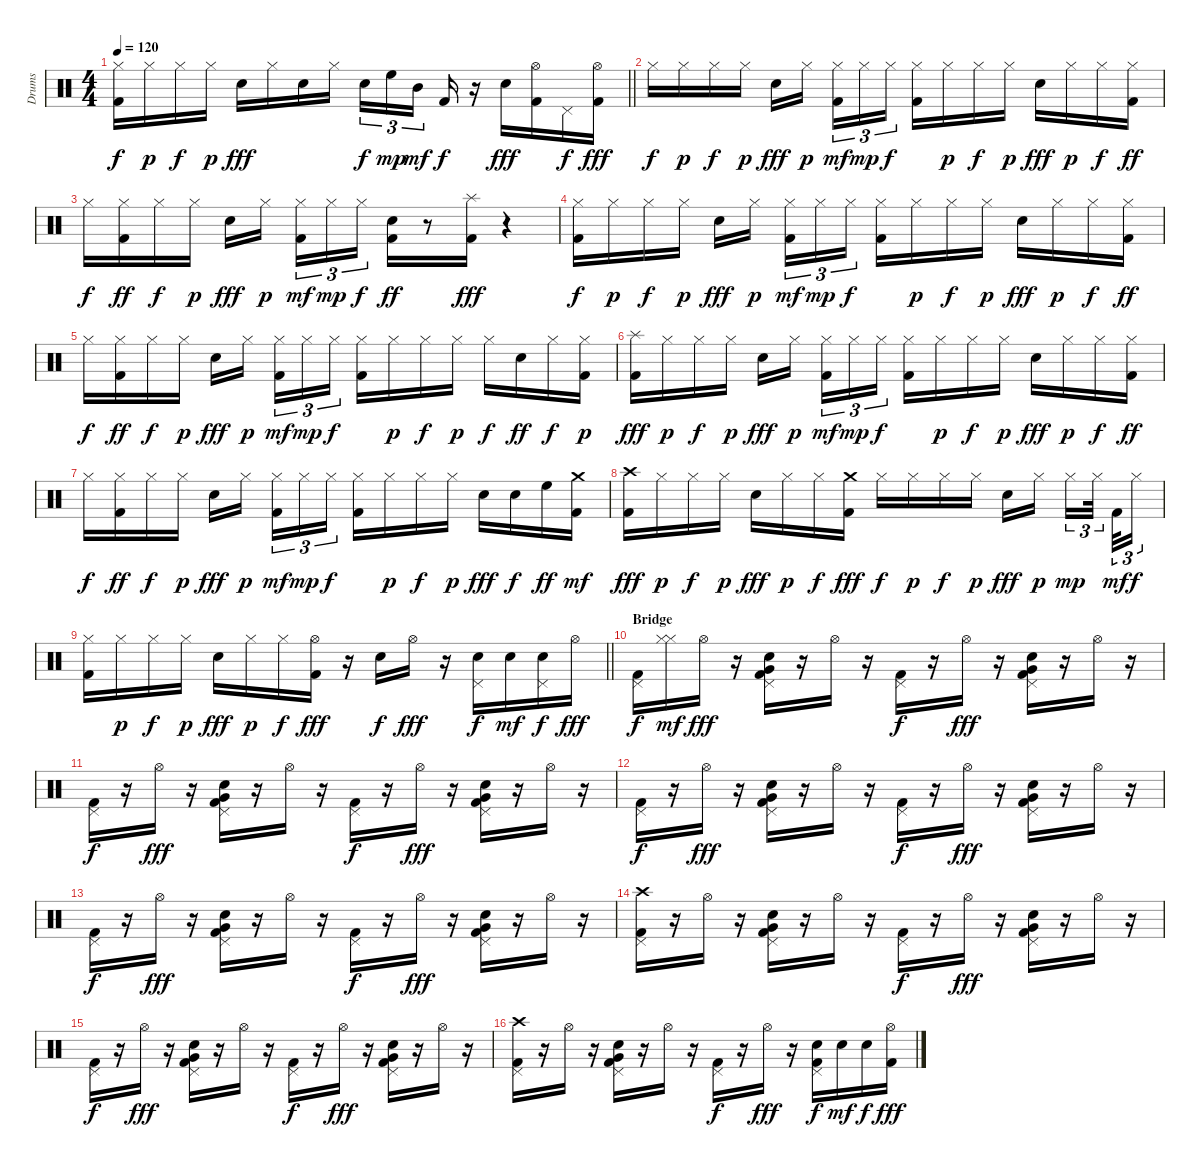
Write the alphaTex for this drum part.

\track ("Drums" "Drums") {instrument percussion}
\staff {score}
\articulation defaults
\ts (4 4)
\tempo 120
\clef neutral
\barLineRight lightlight
\ks c
("Hi-Hat (closed)" "Kick (hit) 2").16{dy f} "Hi-Hat (closed)".16{dy p} "Hi-Hat (closed)".16{dy f} "Hi-Hat (closed)".16{dy p} "Snare (hit) 2".16{dy fff} "Hi-Hat (closed)".16 "Snare (hit) 2".16 "Hi-Hat (closed)".16 "Snare (hit) 2".16{tu (3 2) dy f} "High Floor Tom (hit)".16{tu (3 2) dy mp} "Mid Tom (hit)".16{tu (3 2) dy mf beam splitsecondary} "Kick (hit) 2".16{dy f} r.16 "Snare (hit) 2".16{dy fff} ("Hi-Hat (open)" "Kick (hit) 2").16 "Pedal Hi-Hat (hit)".16{dy f} ("Hi-Hat (open)" "Kick (hit) 2").16{dy fff} |
"Hi-Hat (closed)".16{dy f} "Hi-Hat (closed)".16{dy p} "Hi-Hat (closed)".16{dy f} "Hi-Hat (closed)".16{dy p} "Snare (hit) 2".16{dy fff} "Hi-Hat (closed)".16{dy p beam splitsecondary} ("Hi-Hat (closed)" "Kick (hit) 2").16{tu (3 2) dy mf} "Hi-Hat (closed)".16{tu (3 2) dy mp} "Hi-Hat (closed)".16{tu (3 2) dy f} ("Hi-Hat (closed)" "Kick (hit) 2").16 "Hi-Hat (closed)".16{dy p} "Hi-Hat (closed)".16{dy f} "Hi-Hat (closed)".16{dy p} "Snare (hit) 2".16{dy fff} "Hi-Hat (closed)".16{dy p} "Hi-Hat (closed)".16{dy f} ("Hi-Hat (closed)" "Kick (hit) 2").16{dy ff} |
"Hi-Hat (closed)".16{dy f} ("Hi-Hat (closed)" "Kick (hit) 2").16{dy ff} "Hi-Hat (closed)".16{dy f} "Hi-Hat (closed)".16{dy p} "Snare (hit) 2".16{dy fff} "Hi-Hat (closed)".16{dy p beam splitsecondary} ("Hi-Hat (closed)" "Kick (hit) 2").16{tu (3 2) dy mf} "Hi-Hat (closed)".16{tu (3 2) dy mp} "Hi-Hat (closed)".16{tu (3 2) dy f} ("Snare (hit) 2" "Kick (hit) 2").16{dy ff} r.8 ("Kick (hit) 2" "Splash (hit)").16{dy fff} r.4 |
("Hi-Hat (closed)" "Kick (hit) 2").16{dy f} "Hi-Hat (closed)".16{dy p} "Hi-Hat (closed)".16{dy f} "Hi-Hat (closed)".16{dy p} "Snare (hit) 2".16{dy fff} "Hi-Hat (closed)".16{dy p beam splitsecondary} ("Hi-Hat (closed)" "Kick (hit) 2").16{tu (3 2) dy mf} "Hi-Hat (closed)".16{tu (3 2) dy mp} "Hi-Hat (closed)".16{tu (3 2) dy f} ("Hi-Hat (closed)" "Kick (hit) 2").16 "Hi-Hat (closed)".16{dy p} "Hi-Hat (closed)".16{dy f} "Hi-Hat (closed)".16{dy p} "Snare (hit) 2".16{dy fff} "Hi-Hat (closed)".16{dy p} "Hi-Hat (closed)".16{dy f} ("Hi-Hat (closed)" "Kick (hit) 2").16{dy ff} |
"Hi-Hat (closed)".16{dy f} ("Hi-Hat (closed)" "Kick (hit) 2").16{dy ff} "Hi-Hat (closed)".16{dy f} "Hi-Hat (closed)".16{dy p} "Snare (hit) 2".16{dy fff} "Hi-Hat (closed)".16{dy p beam splitsecondary} ("Hi-Hat (closed)" "Kick (hit) 2").16{tu (3 2) dy mf} "Hi-Hat (closed)".16{tu (3 2) dy mp} "Hi-Hat (closed)".16{tu (3 2) dy f} ("Hi-Hat (closed)" "Kick (hit) 2").16 "Hi-Hat (closed)".16{dy p} "Hi-Hat (closed)".16{dy f} "Hi-Hat (closed)".16{dy p} "Hi-Hat (closed)".16{dy f} "Snare (hit) 2".16{dy ff} "Hi-Hat (closed)".16{dy f} ("Kick (hit) 2" "Hi-Hat (closed)").16{dy p} |
("Kick (hit) 2" "Splash (hit)").16{dy fff} "Hi-Hat (closed)".16{dy p} "Hi-Hat (closed)".16{dy f} "Hi-Hat (closed)".16{dy p} "Snare (hit) 2".16{dy fff} "Hi-Hat (closed)".16{dy p beam splitsecondary} ("Hi-Hat (closed)" "Kick (hit) 2").16{tu (3 2) dy mf} "Hi-Hat (closed)".16{tu (3 2) dy mp} "Hi-Hat (closed)".16{tu (3 2) dy f} ("Hi-Hat (closed)" "Kick (hit) 2").16 "Hi-Hat (closed)".16{dy p} "Hi-Hat (closed)".16{dy f} "Hi-Hat (closed)".16{dy p} "Snare (hit) 2".16{dy fff} "Hi-Hat (closed)".16{dy p} "Hi-Hat (closed)".16{dy f} ("Hi-Hat (closed)" "Kick (hit) 2").16{dy ff} |
"Hi-Hat (closed)".16{dy f} ("Hi-Hat (closed)" "Kick (hit) 2").16{dy ff} "Hi-Hat (closed)".16{dy f} "Hi-Hat (closed)".16{dy p} "Snare (hit) 2".16{dy fff} "Hi-Hat (closed)".16{dy p beam splitsecondary} ("Hi-Hat (closed)" "Kick (hit) 2").16{tu (3 2) dy mf} "Hi-Hat (closed)".16{tu (3 2) dy mp} "Hi-Hat (closed)".16{tu (3 2) dy f} ("Hi-Hat (closed)" "Kick (hit) 2").16 "Hi-Hat (closed)".16{dy p} "Hi-Hat (closed)".16{dy f} "Hi-Hat (closed)".16{dy p} "Snare (hit) 2".16{dy fff} "Snare (hit) 2".16{dy f} "High Floor Tom (hit)".16{dy ff} ("Kick (hit) 2" "Crash medium (hit)").16{dy mf} |
("Kick (hit) 2" "Crash high (hit)").16{dy fff} "Hi-Hat (closed)".16{dy p} "Hi-Hat (closed)".16{dy f} "Hi-Hat (closed)".16{dy p} "Snare (hit) 2".16{dy fff} "Hi-Hat (closed)".16{dy p} "Hi-Hat (closed)".16{dy f} ("Kick (hit) 2" "Crash medium (hit)").16{dy fff} "Hi-Hat (closed)".16{dy f} "Hi-Hat (closed)".16{dy p} "Hi-Hat (closed)".16{dy f} "Hi-Hat (closed)".16{dy p} "Snare (hit) 2".16{dy fff} "Hi-Hat (closed)".16{dy p beam splitsecondary} "Hi-Hat (closed)".16{tu (3 2) dy mp} "Hi-Hat (closed)".32{tu (3 2) beam splitsecondary} "Kick (hit) 2".32{tu (3 2) dy mf} "Hi-Hat (closed)".16{tu (3 2) dy f} |
\barLineRight lightlight
("Kick (hit) 2" "Hi-Hat (closed)").16 "Hi-Hat (closed)".16{dy p} "Hi-Hat (closed)".16{dy f} "Hi-Hat (closed)".16{dy p} "Snare (hit) 2".16{dy fff} "Hi-Hat (closed)".16{dy p} "Hi-Hat (closed)".16{dy f} ("Kick (hit) 2" "Hi-Hat (open)").16{dy fff} r.16 "Snare (hit) 2".16{dy f} "Hi-Hat (open)".16{dy fff} r.16 ("Snare (hit) 2" "Pedal Hi-Hat (hit)").16{dy f} "Snare (hit) 2".16{dy mf} ("Snare (hit) 2" "Pedal Hi-Hat (hit)").16{dy f} "Hi-Hat (open)".16{dy fff} |
\section ("" "Bridge")
("Kick (hit) 2" "Pedal Hi-Hat (hit)").16{dy f} ("Hi-Hat (closed)" "Hi-Hat (closed)").16{dy mf} "Hi-Hat (open)".16{dy fff} r.16 ("Kick (hit) 2" "Pedal Hi-Hat (hit)" "Snare (hit) 2" "Very Low Tom (hit)").16 r.16 "Hi-Hat (open)".16 r.16 ("Kick (hit) 2" "Pedal Hi-Hat (hit)").16{dy f} r.16 "Hi-Hat (open)".16{dy fff} r.16 ("Kick (hit) 2" "Pedal Hi-Hat (hit)" "Snare (hit) 2" "Very Low Tom (hit)").16 r.16 "Hi-Hat (open)".16 r.16 |
("Kick (hit) 2" "Pedal Hi-Hat (hit)").16{dy f} r.16 "Hi-Hat (open)".16{dy fff} r.16 ("Kick (hit) 2" "Pedal Hi-Hat (hit)" "Snare (hit) 2" "Very Low Tom (hit)").16 r.16 "Hi-Hat (open)".16 r.16 ("Kick (hit) 2" "Pedal Hi-Hat (hit)").16{dy f} r.16 "Hi-Hat (open)".16{dy fff} r.16 ("Kick (hit) 2" "Pedal Hi-Hat (hit)" "Snare (hit) 2" "Very Low Tom (hit)").16 r.16 "Hi-Hat (open)".16 r.16 |
("Kick (hit) 2" "Pedal Hi-Hat (hit)").16{dy f} r.16 "Hi-Hat (open)".16{dy fff} r.16 ("Kick (hit) 2" "Pedal Hi-Hat (hit)" "Snare (hit) 2" "Very Low Tom (hit)").16 r.16 "Hi-Hat (open)".16 r.16 ("Kick (hit) 2" "Pedal Hi-Hat (hit)").16{dy f} r.16 "Hi-Hat (open)".16{dy fff} r.16 ("Kick (hit) 2" "Pedal Hi-Hat (hit)" "Snare (hit) 2" "Very Low Tom (hit)").16 r.16 "Hi-Hat (open)".16 r.16 |
("Kick (hit) 2" "Pedal Hi-Hat (hit)").16{dy f} r.16 "Hi-Hat (open)".16{dy fff} r.16 ("Kick (hit) 2" "Pedal Hi-Hat (hit)" "Snare (hit) 2" "Very Low Tom (hit)").16 r.16 "Hi-Hat (open)".16 r.16 ("Kick (hit) 2" "Pedal Hi-Hat (hit)").16{dy f} r.16 "Hi-Hat (open)".16{dy fff} r.16 ("Kick (hit) 2" "Pedal Hi-Hat (hit)" "Snare (hit) 2" "Very Low Tom (hit)").16 r.16 "Hi-Hat (open)".16 r.16 |
("Kick (hit) 2" "Pedal Hi-Hat (hit)" "Crash high (hit)").16 r.16 "Hi-Hat (open)".16 r.16 ("Kick (hit) 2" "Pedal Hi-Hat (hit)" "Snare (hit) 2" "Very Low Tom (hit)").16 r.16 "Hi-Hat (open)".16 r.16 ("Kick (hit) 2" "Pedal Hi-Hat (hit)").16{dy f} r.16 "Hi-Hat (open)".16{dy fff} r.16 ("Kick (hit) 2" "Pedal Hi-Hat (hit)" "Snare (hit) 2" "Very Low Tom (hit)").16 r.16 "Hi-Hat (open)".16 r.16 |
("Kick (hit) 2" "Pedal Hi-Hat (hit)").16{dy f} r.16 "Hi-Hat (open)".16{dy fff} r.16 ("Kick (hit) 2" "Pedal Hi-Hat (hit)" "Snare (hit) 2" "Very Low Tom (hit)").16 r.16 "Hi-Hat (open)".16 r.16 ("Kick (hit) 2" "Pedal Hi-Hat (hit)").16{dy f} r.16 "Hi-Hat (open)".16{dy fff} r.16 ("Kick (hit) 2" "Pedal Hi-Hat (hit)" "Snare (hit) 2" "Very Low Tom (hit)").16 r.16 "Hi-Hat (open)".16 r.16 |
("Kick (hit) 2" "Pedal Hi-Hat (hit)" "Crash high (hit)").16 r.16 "Hi-Hat (open)".16 r.16 ("Kick (hit) 2" "Pedal Hi-Hat (hit)" "Snare (hit) 2" "Very Low Tom (hit)").16 r.16 "Hi-Hat (open)".16 r.16 ("Kick (hit) 2" "Pedal Hi-Hat (hit)").16{dy f} r.16 "Hi-Hat (open)".16{dy fff} r.16 ("Kick (hit) 2" "Pedal Hi-Hat (hit)" "Snare (hit) 2").16{dy f} "Snare (hit) 2".16{dy mf} "Snare (hit) 2".16{dy f} ("Hi-Hat (open)" "Kick (hit) 2").16{dy fff}
